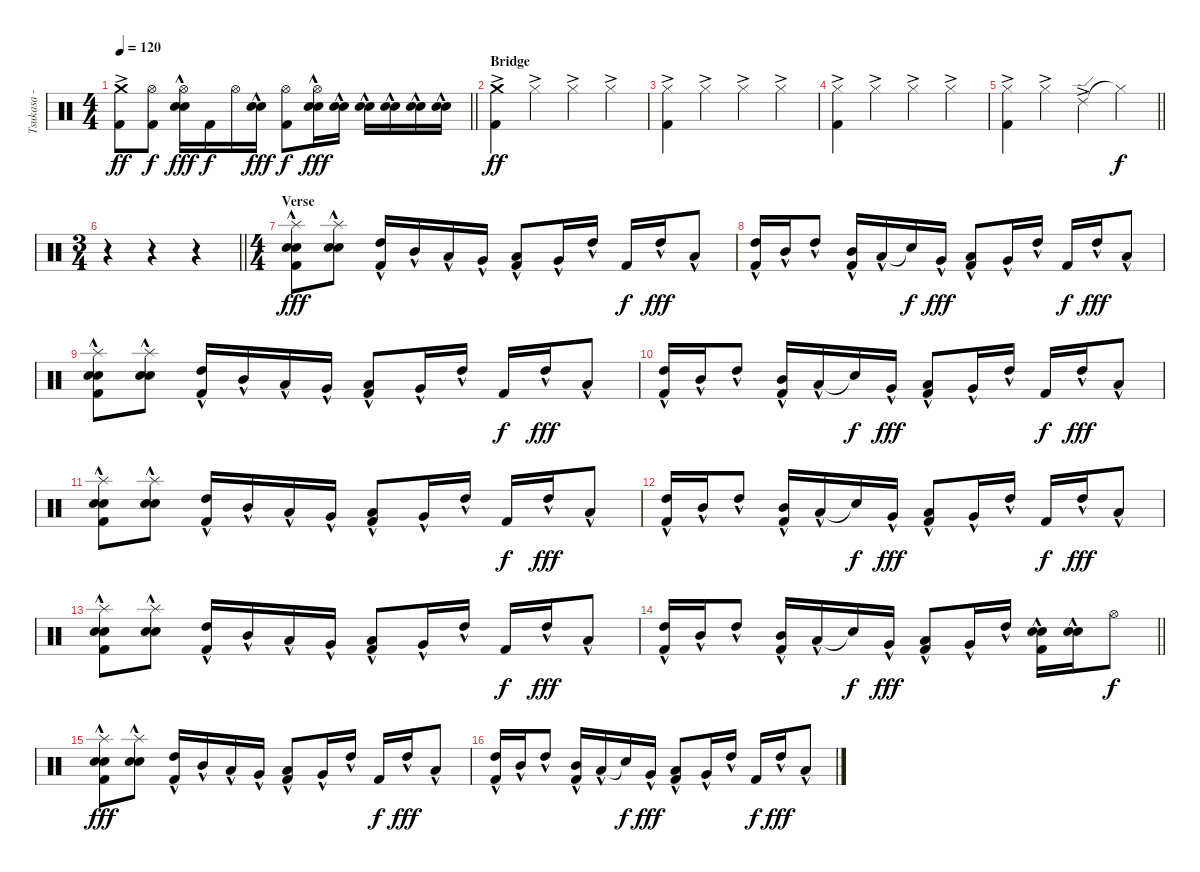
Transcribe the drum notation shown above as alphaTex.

\track ("Tsukasa - Drums" "Tsukasa - ") {instrument percussion}
\staff {score}
\articulation defaults
\ts (4 4)
\tempo 120
\clef neutral
\barLineRight lightlight
\ks c
("Crash medium (hit)"{ac} "Kick (hit) 2").8{dy ff} ("Hi-Hat (open)" "Kick (hit) 2").8{dy f} ("Hi-Hat (open)" "Electric Snare (hit)"{hac} "Snare (hit) 2"{hac}).16{dy fff} "Kick (hit) 2".16{dy f} "Hi-Hat (open)".16 ("Electric Snare (hit)"{hac} "Snare (hit) 2"{hac}).16{dy fff} ("Hi-Hat (open)" "Kick (hit) 2").8{dy f} ("Hi-Hat (open)" "Electric Snare (hit)"{hac} "Snare (hit) 2"{hac}).16{dy fff} ("Electric Snare (hit)"{hac} "Snare (hit) 2"{hac}).16 ("Electric Snare (hit)"{hac} "Snare (hit) 2"{hac}).16 ("Electric Snare (hit)"{hac} "Snare (hit) 2"{hac}).16 ("Electric Snare (hit)"{hac} "Snare (hit) 2"{hac}).16 ("Electric Snare (hit)"{hac} "Snare (hit) 2"{hac}).16 |
\section ("" "Bridge")
("Crash medium (hit)"{ac} "Kick (hit) 2").4{dy ff} "Hi-Hat (closed)"{ac}.4 "Hi-Hat (closed)"{ac}.4 "Hi-Hat (closed)"{ac}.4 |
("Hi-Hat (closed)"{ac} "Kick (hit) 2").4 "Hi-Hat (closed)"{ac}.4 "Hi-Hat (closed)"{ac}.4 "Hi-Hat (closed)"{ac}.4 |
("Hi-Hat (closed)"{ac} "Kick (hit) 2").4 "Hi-Hat (closed)"{ac}.4 "Hi-Hat (closed)"{ac}.4 "Hi-Hat (closed)"{ac}.4 |
\barLineRight lightlight
("Hi-Hat (closed)"{ac} "Kick (hit) 2").4 "Hi-Hat (closed)"{ac}.4 "Ride (edge) 2"{ac}.4 "Hi-Hat (closed)"{t}.4{dy f} |
\ts (3 4)
\barLineRight lightlight
r.4 r.4 r.4 |
\ts (4 4)
\section ("" "Verse")
("Splash (hit)"{hac} "Electric Snare (hit)"{hac} "Snare (hit) 2"{hac} "Kick (hit) 2").8{dy fff} ("Splash (hit)"{hac} "Electric Snare (hit)" "Snare (hit) 2").8 ("High Tom (hit)"{hac} "Kick (hit) 2").16 "Mid Tom (hit)"{hac}.16 "Low Tom (hit)"{hac}.16 "Very Low Tom (hit)"{hac}.16 ("Low Tom (hit)"{hac} "Kick (hit) 2").8 "Very Low Tom (hit)"{hac}.16 "High Tom (hit)"{hac}.16 "Kick (hit) 2".16{dy f} "High Tom (hit)"{hac}.16{dy fff} "Low Tom (hit)"{hac}.8 |
("High Tom (hit)"{hac} "Kick (hit) 2").16 "Mid Tom (hit)"{hac}.16 "High Tom (hit)"{hac}.8 ("Mid Tom (hit)"{hac} "Kick (hit) 2").16 "Low Tom (hit)"{hac}.16 "Snare (hit)"{t}.16{dy f} "Very Low Tom (hit)"{hac}.16{dy fff} ("Low Tom (hit)"{hac} "Kick (hit) 2").8 "Very Low Tom (hit)"{hac}.16 "High Tom (hit)"{hac}.16 "Kick (hit) 2".16{dy f} "High Tom (hit)"{hac}.16{dy fff} "Low Tom (hit)"{hac}.8 |
("Splash (hit)"{hac} "Electric Snare (hit)"{hac} "Snare (hit) 2"{hac} "Kick (hit) 2").8 ("Splash (hit)"{hac} "Electric Snare (hit)" "Snare (hit) 2").8 ("High Tom (hit)"{hac} "Kick (hit) 2").16 "Mid Tom (hit)"{hac}.16 "Low Tom (hit)"{hac}.16 "Very Low Tom (hit)"{hac}.16 ("Low Tom (hit)"{hac} "Kick (hit) 2").8 "Very Low Tom (hit)"{hac}.16 "High Tom (hit)"{hac}.16 "Kick (hit) 2".16{dy f} "High Tom (hit)"{hac}.16{dy fff} "Low Tom (hit)"{hac}.8 |
("High Tom (hit)"{hac} "Kick (hit) 2").16 "Mid Tom (hit)"{hac}.16 "High Tom (hit)"{hac}.8 ("Mid Tom (hit)"{hac} "Kick (hit) 2").16 "Low Tom (hit)"{hac}.16 "Snare (hit)"{t}.16{dy f} "Very Low Tom (hit)"{hac}.16{dy fff} ("Low Tom (hit)"{hac} "Kick (hit) 2").8 "Very Low Tom (hit)"{hac}.16 "High Tom (hit)"{hac}.16 "Kick (hit) 2".16{dy f} "High Tom (hit)"{hac}.16{dy fff} "Low Tom (hit)"{hac}.8 |
("Splash (hit)"{hac} "Electric Snare (hit)"{hac} "Snare (hit) 2"{hac} "Kick (hit) 2").8 ("Splash (hit)"{hac} "Electric Snare (hit)" "Snare (hit) 2").8 ("High Tom (hit)"{hac} "Kick (hit) 2").16 "Mid Tom (hit)"{hac}.16 "Low Tom (hit)"{hac}.16 "Very Low Tom (hit)"{hac}.16 ("Low Tom (hit)"{hac} "Kick (hit) 2").8 "Very Low Tom (hit)"{hac}.16 "High Tom (hit)"{hac}.16 "Kick (hit) 2".16{dy f} "High Tom (hit)"{hac}.16{dy fff} "Low Tom (hit)"{hac}.8 |
("High Tom (hit)"{hac} "Kick (hit) 2").16 "Mid Tom (hit)"{hac}.16 "High Tom (hit)"{hac}.8 ("Mid Tom (hit)"{hac} "Kick (hit) 2").16 "Low Tom (hit)"{hac}.16 "Snare (hit)"{t}.16{dy f} "Very Low Tom (hit)"{hac}.16{dy fff} ("Low Tom (hit)"{hac} "Kick (hit) 2").8 "Very Low Tom (hit)"{hac}.16 "High Tom (hit)"{hac}.16 "Kick (hit) 2".16{dy f} "High Tom (hit)"{hac}.16{dy fff} "Low Tom (hit)"{hac}.8 |
("Splash (hit)"{hac} "Electric Snare (hit)"{hac} "Snare (hit) 2"{hac} "Kick (hit) 2").8 ("Splash (hit)"{hac} "Electric Snare (hit)" "Snare (hit) 2").8 ("High Tom (hit)"{hac} "Kick (hit) 2").16 "Mid Tom (hit)"{hac}.16 "Low Tom (hit)"{hac}.16 "Very Low Tom (hit)"{hac}.16 ("Low Tom (hit)"{hac} "Kick (hit) 2").8 "Very Low Tom (hit)"{hac}.16 "High Tom (hit)"{hac}.16 "Kick (hit) 2".16{dy f} "High Tom (hit)"{hac}.16{dy fff} "Low Tom (hit)"{hac}.8 |
\barLineRight lightlight
("High Tom (hit)"{hac} "Kick (hit) 2").16 "Mid Tom (hit)"{hac}.16 "High Tom (hit)"{hac}.8 ("Mid Tom (hit)"{hac} "Kick (hit) 2").16 "Low Tom (hit)"{hac}.16 "Snare (hit)"{t}.16{dy f} "Very Low Tom (hit)"{hac}.16{dy fff} ("Low Tom (hit)"{hac} "Kick (hit) 2").8 "Very Low Tom (hit)"{hac}.16 "High Tom (hit)"{hac}.16 ("Electric Snare (hit)" "Snare (hit) 2"{hac} "Kick (hit) 2").16 ("Electric Snare (hit)"{hac} "Snare (hit) 2"{hac}).16 "Hi-Hat (open)".8{dy f} |
\section ("" "")
("Splash (hit)"{hac} "Electric Snare (hit)"{hac} "Snare (hit) 2"{hac} "Kick (hit) 2").8{dy fff} ("Splash (hit)"{hac} "Electric Snare (hit)" "Snare (hit) 2").8 ("High Tom (hit)"{hac} "Kick (hit) 2").16 "Mid Tom (hit)"{hac}.16 "Low Tom (hit)"{hac}.16 "Very Low Tom (hit)"{hac}.16 ("Low Tom (hit)"{hac} "Kick (hit) 2").8 "Very Low Tom (hit)"{hac}.16 "High Tom (hit)"{hac}.16 "Kick (hit) 2".16{dy f} "High Tom (hit)"{hac}.16{dy fff} "Low Tom (hit)"{hac}.8 |
("High Tom (hit)"{hac} "Kick (hit) 2").16 "Mid Tom (hit)"{hac}.16 "High Tom (hit)"{hac}.8 ("Mid Tom (hit)"{hac} "Kick (hit) 2").16 "Low Tom (hit)"{hac}.16 "Snare (hit)"{t}.16{dy f} "Very Low Tom (hit)"{hac}.16{dy fff} ("Low Tom (hit)"{hac} "Kick (hit) 2").8 "Very Low Tom (hit)"{hac}.16 "High Tom (hit)"{hac}.16 "Kick (hit) 2".16{dy f} "High Tom (hit)"{hac}.16{dy fff} "Low Tom (hit)"{hac}.8
